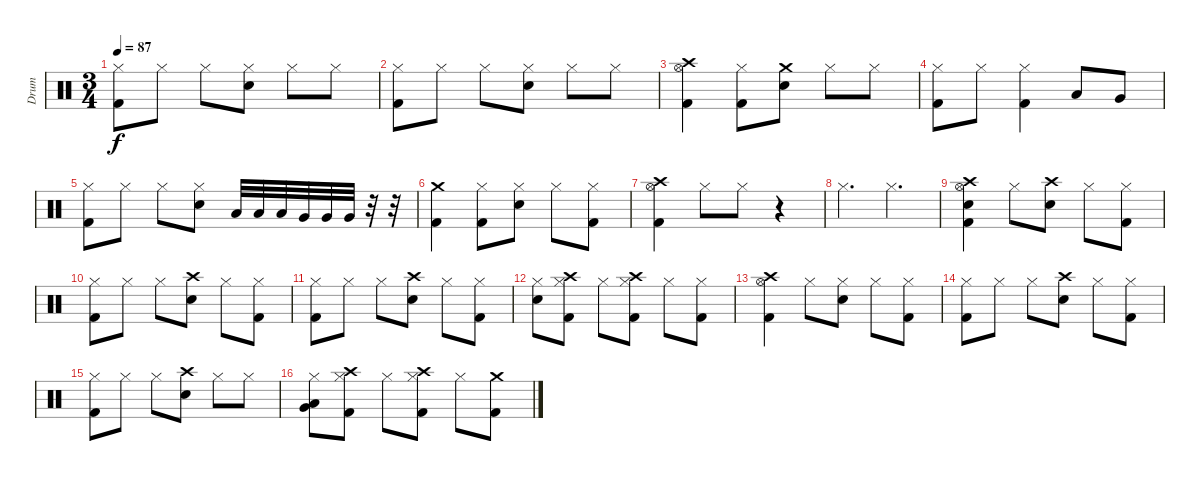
\track ("Drum" "Drum") {instrument percussion}
\staff {score}
\articulation defaults
\ts (3 4)
\tempo 87
\clef neutral
\ks c
("Hi-Hat (closed)" "Kick (hit) 2").8{dy f} "Hi-Hat (closed)".8 "Hi-Hat (closed)".8 ("Hi-Hat (closed)" "Electric Snare (hit)").8 "Hi-Hat (closed)".8 "Hi-Hat (closed)".8 |
("Hi-Hat (closed)" "Kick (hit) 2").8 "Hi-Hat (closed)".8 "Hi-Hat (closed)".8 ("Hi-Hat (closed)" "Electric Snare (hit)").8 "Hi-Hat (closed)".8 "Hi-Hat (closed)".8 |
("Crash high (hit)" "Hi-Hat (open)" "Kick (hit) 2").4 ("Hi-Hat (closed)" "Kick (hit) 2").8 ("Crash medium (hit)" "Electric Snare (hit)").8 "Hi-Hat (closed)".8 "Hi-Hat (closed)".8 |
("Hi-Hat (closed)" "Kick (hit) 2").8 "Hi-Hat (closed)".8 ("Hi-Hat (closed)" "Kick (hit) 2").4 "Low Tom (hit)".8 "Very Low Tom (hit)".8 |
("Hi-Hat (closed)" "Kick (hit) 2").8 "Hi-Hat (closed)".8 "Hi-Hat (closed)".8 ("Hi-Hat (closed)" "Electric Snare (hit)").8 "Low Tom (hit)".32 "Low Tom (hit)".32 "Low Tom (hit)".32 "Very Low Tom (hit)".32 "Very Low Tom (hit)".32 "Very Low Tom (hit)".32 r.32 r.32 |
("Crash medium (hit)" "Kick (hit) 2").4 ("Hi-Hat (closed)" "Kick (hit) 2").8 ("Hi-Hat (closed)" "Electric Snare (hit)").8 "Hi-Hat (closed)".8 ("Hi-Hat (closed)" "Kick (hit) 2").8 |
("Crash high (hit)" "Hi-Hat (open)" "Kick (hit) 2").4 "Hi-Hat (closed)".8 "Hi-Hat (closed)".8 r.4 |
"Hi-Hat (closed)".4{d} "Hi-Hat (closed)".4{d} |
("Crash high (hit)" "Hi-Hat (open)" "Electric Snare (hit)" "Kick (hit) 2").4 "Hi-Hat (closed)".8 ("Crash high (hit)" "Electric Snare (hit)").8 "Hi-Hat (closed)".8 ("Hi-Hat (closed)" "Kick (hit) 2").8 |
("Hi-Hat (closed)" "Kick (hit) 2").8 "Hi-Hat (closed)".8 "Hi-Hat (closed)".8 ("Crash high (hit)" "Electric Snare (hit)").8 "Hi-Hat (closed)".8 ("Hi-Hat (closed)" "Kick (hit) 2").8 |
("Hi-Hat (closed)" "Kick (hit) 2").8 "Hi-Hat (closed)".8 "Hi-Hat (closed)".8 ("Crash high (hit)" "Electric Snare (hit)").8 "Hi-Hat (closed)".8 ("Hi-Hat (closed)" "Kick (hit) 2").8 |
("Hi-Hat (closed)" "Electric Snare (hit)").8 ("Crash high (hit)" "Hi-Hat (closed)" "Kick (hit) 2").8 "Hi-Hat (closed)".8 ("Crash high (hit)" "Hi-Hat (closed)" "Kick (hit) 2").8 "Hi-Hat (closed)".8 ("Hi-Hat (closed)" "Kick (hit) 2").8 |
("Crash high (hit)" "Hi-Hat (open)" "Kick (hit) 2").4 "Hi-Hat (closed)".8 ("Hi-Hat (closed)" "Electric Snare (hit)").8 "Hi-Hat (closed)".8 ("Hi-Hat (closed)" "Kick (hit) 2").8 |
("Hi-Hat (closed)" "Kick (hit) 2").8 "Hi-Hat (closed)".8 "Hi-Hat (closed)".8 ("Crash high (hit)" "Electric Snare (hit)").8 "Hi-Hat (closed)".8 ("Hi-Hat (closed)" "Kick (hit) 2").8 |
("Hi-Hat (closed)" "Kick (hit) 2").8 "Hi-Hat (closed)".8 "Hi-Hat (closed)".8 ("Crash high (hit)" "Electric Snare (hit)").8 "Hi-Hat (closed)".8 "Hi-Hat (closed)".8 |
("Hi-Hat (closed)" "Very Low Tom (hit)" "Low Floor Tom (hit)").8 ("Crash high (hit)" "Hi-Hat (closed)" "Kick (hit) 2").8 "Hi-Hat (closed)".8 ("Crash high (hit)" "Hi-Hat (closed)" "Kick (hit) 2").8 "Hi-Hat (closed)".8 ("Crash medium (hit)" "Kick (hit) 2").8
